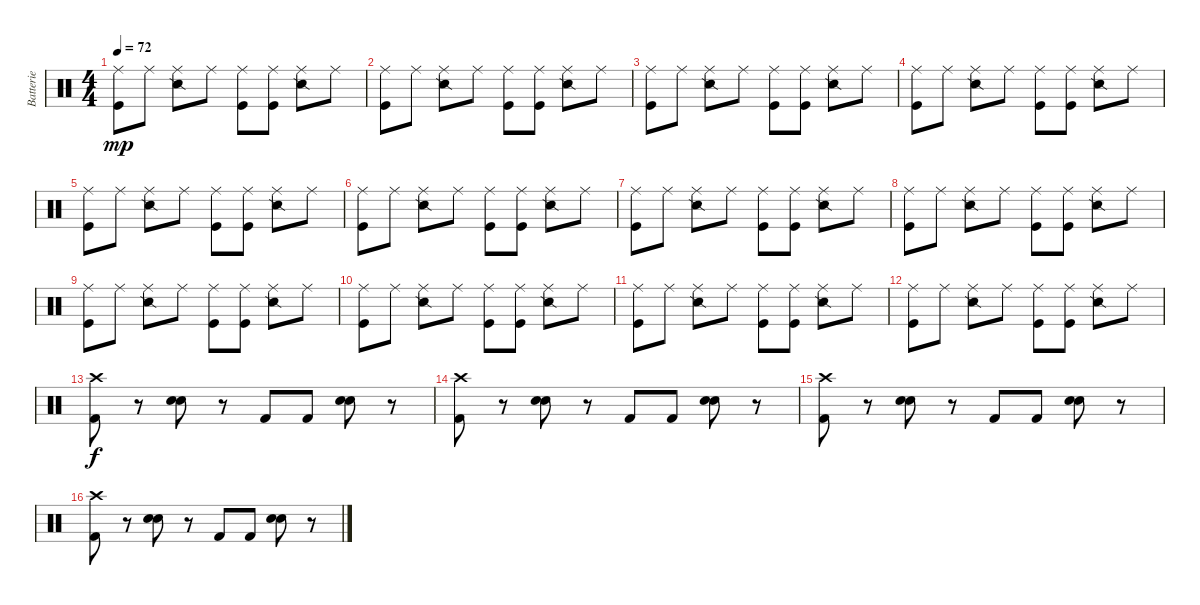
\track ("Batterie" "Batterie") {instrument percussion}
\staff {score}
\articulation defaults
\ts (4 4)
\tempo 72
\clef neutral
\ks c
("Ride (middle)" "Kick (hit)").8{dy mp} "Ride (middle)".8 ("Ride (middle)" "Snare (side stick) 2").8 "Ride (middle)".8 ("Ride (middle)" "Kick (hit)").8 ("Ride (middle)" "Kick (hit)").8 ("Ride (middle)" "Snare (side stick) 2").8 "Ride (middle)".8 |
("Ride (middle)" "Kick (hit)").8 "Ride (middle)".8 ("Ride (middle)" "Snare (side stick) 2").8 "Ride (middle)".8 ("Ride (middle)" "Kick (hit)").8 ("Ride (middle)" "Kick (hit)").8 ("Ride (middle)" "Snare (side stick) 2").8 "Ride (middle)".8 |
("Ride (middle)" "Kick (hit)").8 "Ride (middle)".8 ("Ride (middle)" "Snare (side stick) 2").8 "Ride (middle)".8 ("Ride (middle)" "Kick (hit)").8 ("Ride (middle)" "Kick (hit)").8 ("Ride (middle)" "Snare (side stick) 2").8 "Ride (middle)".8 |
("Ride (middle)" "Kick (hit)").8 "Ride (middle)".8 ("Ride (middle)" "Snare (side stick) 2").8 "Ride (middle)".8 ("Ride (middle)" "Kick (hit)").8 ("Ride (middle)" "Kick (hit)").8 ("Ride (middle)" "Snare (side stick) 2").8 "Ride (middle)".8 |
("Ride (middle)" "Kick (hit)").8 "Ride (middle)".8 ("Ride (middle)" "Snare (side stick) 2").8 "Ride (middle)".8 ("Ride (middle)" "Kick (hit)").8 ("Ride (middle)" "Kick (hit)").8 ("Ride (middle)" "Snare (side stick) 2").8 "Ride (middle)".8 |
("Ride (middle)" "Kick (hit)").8 "Ride (middle)".8 ("Ride (middle)" "Snare (side stick) 2").8 "Ride (middle)".8 ("Ride (middle)" "Kick (hit)").8 ("Ride (middle)" "Kick (hit)").8 ("Ride (middle)" "Snare (side stick) 2").8 "Ride (middle)".8 |
("Ride (middle)" "Kick (hit)").8 "Ride (middle)".8 ("Ride (middle)" "Snare (side stick) 2").8 "Ride (middle)".8 ("Ride (middle)" "Kick (hit)").8 ("Ride (middle)" "Kick (hit)").8 ("Ride (middle)" "Snare (side stick) 2").8 "Ride (middle)".8 |
("Ride (middle)" "Kick (hit)").8 "Ride (middle)".8 ("Ride (middle)" "Snare (side stick) 2").8 "Ride (middle)".8 ("Ride (middle)" "Kick (hit)").8 ("Ride (middle)" "Kick (hit)").8 ("Ride (middle)" "Snare (side stick) 2").8 "Ride (middle)".8 |
("Ride (middle)" "Kick (hit)").8 "Ride (middle)".8 ("Ride (middle)" "Snare (side stick) 2").8 "Ride (middle)".8 ("Ride (middle)" "Kick (hit)").8 ("Ride (middle)" "Kick (hit)").8 ("Ride (middle)" "Snare (side stick) 2").8 "Ride (middle)".8 |
("Ride (middle)" "Kick (hit)").8 "Ride (middle)".8 ("Ride (middle)" "Snare (side stick) 2").8 "Ride (middle)".8 ("Ride (middle)" "Kick (hit)").8 ("Ride (middle)" "Kick (hit)").8 ("Ride (middle)" "Snare (side stick) 2").8 "Ride (middle)".8 |
("Ride (middle)" "Kick (hit)").8 "Ride (middle)".8 ("Ride (middle)" "Snare (side stick) 2").8 "Ride (middle)".8 ("Ride (middle)" "Kick (hit)").8 ("Ride (middle)" "Kick (hit)").8 ("Ride (middle)" "Snare (side stick) 2").8 "Ride (middle)".8 |
("Ride (middle)" "Kick (hit)").8 "Ride (middle)".8 ("Ride (middle)" "Snare (side stick) 2").8 "Ride (middle)".8 ("Ride (middle)" "Kick (hit)").8 ("Ride (middle)" "Kick (hit)").8 ("Ride (middle)" "Snare (side stick) 2").8 "Ride (middle)".8 |
("Crash high (hit)" "Kick (hit) 2").8{dy f} r.8 ("Snare (hit) 2" "Snare (hit) 2").8 r.8 "Kick (hit) 2".8 "Kick (hit) 2".8 ("Snare (hit) 2" "Snare (hit) 2").8 r.8 |
("Crash high (hit)" "Kick (hit) 2").8 r.8 ("Snare (hit) 2" "Snare (hit) 2").8 r.8 "Kick (hit) 2".8 "Kick (hit) 2".8 ("Snare (hit) 2" "Snare (hit) 2").8 r.8 |
("Crash high (hit)" "Kick (hit) 2").8 r.8 ("Snare (hit) 2" "Snare (hit) 2").8 r.8 "Kick (hit) 2".8 "Kick (hit) 2".8 ("Snare (hit) 2" "Snare (hit) 2").8 r.8 |
("Crash high (hit)" "Kick (hit) 2").8 r.8 ("Snare (hit) 2" "Snare (hit) 2").8 r.8 "Kick (hit) 2".8 "Kick (hit) 2".8 ("Snare (hit) 2" "Snare (hit) 2").8 r.8
